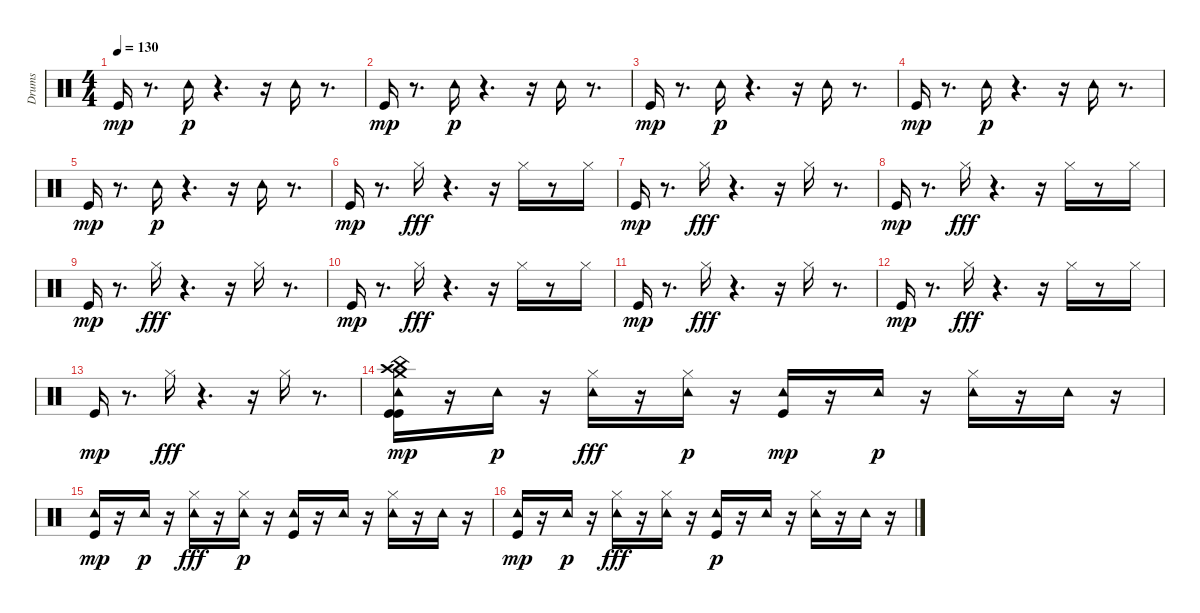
\track ("Drums" "Drums") {instrument percussion}
\staff {score}
\articulation defaults
\ts (4 4)
\tempo 130
\clef neutral
\ks c "Kick (hit)".16{dy mp}
r.8{d} "Tambourine (hit)".16{dy p} r.4{d} r.16 "Tambourine (hit)".16 r.8{d} |
"Kick (hit)".16{dy mp} r.8{d} "Tambourine (hit)".16{dy p} r.4{d} r.16 "Tambourine (hit)".16 r.8{d} |
"Kick (hit)".16{dy mp} r.8{d} "Tambourine (hit)".16{dy p} r.4{d} r.16 "Tambourine (hit)".16 r.8{d} |
"Kick (hit)".16{dy mp} r.8{d} "Tambourine (hit)".16{dy p} r.4{d} r.16 "Tambourine (hit)".16 r.8{d} |
"Kick (hit)".16{dy mp} r.8{d} "Tambourine (hit)".16{dy p} r.4{d} r.16 "Tambourine (hit)".16 r.8{d} |
"Kick (hit)".16{dy mp} r.8{d} "Hi-Hat (closed)".16{dy fff} r.4{d} r.16 "Hi-Hat (closed)".16 r.8 "Hi-Hat (closed)".16 |
"Kick (hit)".16{dy mp} r.8{d} "Hi-Hat (closed)".16{dy fff} r.4{d} r.16 "Hi-Hat (closed)".16 r.8{d} |
"Kick (hit)".16{dy mp} r.8{d} "Hi-Hat (closed)".16{dy fff} r.4{d} r.16 "Hi-Hat (closed)".16 r.8 "Hi-Hat (closed)".16 |
"Kick (hit)".16{dy mp} r.8{d} "Hi-Hat (closed)".16{dy fff} r.4{d} r.16 "Hi-Hat (closed)".16 r.8{d} |
"Kick (hit)".16{dy mp} r.8{d} "Hi-Hat (closed)".16{dy fff} r.4{d} r.16 "Hi-Hat (closed)".16 r.8 "Hi-Hat (closed)".16 |
"Kick (hit)".16{dy mp} r.8{d} "Hi-Hat (closed)".16{dy fff} r.4{d} r.16 "Hi-Hat (closed)".16 r.8{d} |
"Kick (hit)".16{dy mp} r.8{d} "Hi-Hat (closed)".16{dy fff} r.4{d} r.16 "Hi-Hat (closed)".16 r.8 "Hi-Hat (closed)".16 |
"Kick (hit)".16{dy mp} r.8{d} "Hi-Hat (closed)".16{dy fff} r.4{d} r.16 "Hi-Hat (closed)".16 r.8{d} |
("Crash high (hit)" "Tambourine (hit)" "China (hit)" "Kick (hit)" "Crash medium (hit)" "Kick (hit)").16{dy mp} r.16 "Tambourine (hit)".16{dy p} r.16 ("Tambourine (hit)" "Hi-Hat (closed)").16{dy fff} r.16 ("Hi-Hat (closed)" "Tambourine (hit)").16{dy p} r.16 ("Tambourine (hit)" "Kick (hit)").16{dy mp} r.16 "Tambourine (hit)".16{dy p} r.16 ("Hi-Hat (closed)" "Tambourine (hit)").16 r.16 "Tambourine (hit)".16 r.16 |
("Tambourine (hit)" "Kick (hit)").16{dy mp} r.16 "Tambourine (hit)".16{dy p} r.16 ("Tambourine (hit)" "Hi-Hat (closed)").16{dy fff} r.16 ("Hi-Hat (closed)" "Tambourine (hit)").16{dy p} r.16 ("Kick (hit)" "Tambourine (hit)").16 r.16 "Tambourine (hit)".16 r.16 ("Hi-Hat (closed)" "Tambourine (hit)").16 r.16 "Tambourine (hit)".16 r.16 |
("Tambourine (hit)" "Kick (hit)").16{dy mp} r.16 "Tambourine (hit)".16{dy p} r.16 ("Tambourine (hit)" "Hi-Hat (closed)").16{dy fff} r.16 ("Tambourine (hit)" "Hi-Hat (closed)").16 r.16 ("Kick (hit)" "Tambourine (hit)").16{dy p} r.16 "Tambourine (hit)".16 r.16 ("Hi-Hat (closed)" "Tambourine (hit)").16 r.16 "Tambourine (hit)".16 r.16
